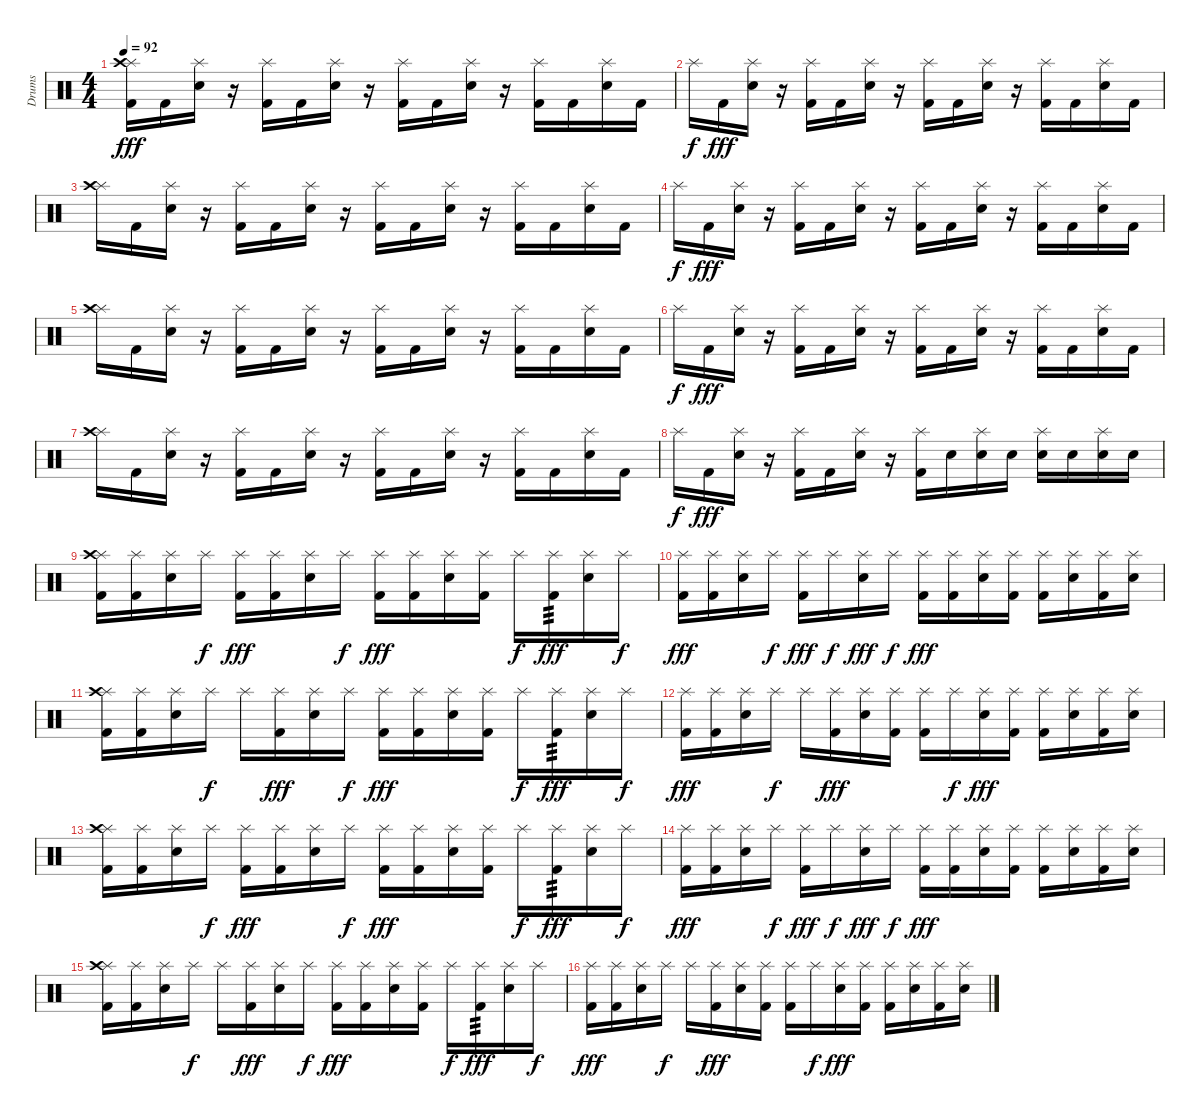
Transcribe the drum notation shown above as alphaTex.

\track ("Drums" "Drums") {instrument percussion}
\staff {score}
\articulation defaults
\ts (4 4)
\tempo 92
\clef neutral
\ks c
("Kick (hit) 2" "Splash (hit)" "Crash high (hit)").16{dy fff} "Kick (hit) 2".16 ("Electric Snare (hit)" "Splash (hit)").16 r.16 ("Kick (hit) 2" "Splash (hit)").16 "Kick (hit) 2".16 ("Electric Snare (hit)" "Splash (hit)").16 r.16 ("Kick (hit) 2" "Splash (hit)").16 "Kick (hit) 2".16 ("Electric Snare (hit)" "Splash (hit)").16 r.16 ("Kick (hit) 2" "Splash (hit)").16 "Kick (hit) 2".16 ("Electric Snare (hit)" "Splash (hit)").16 "Kick (hit) 2".16 |
"Splash (hit)".16{dy f} "Kick (hit) 2".16{dy fff} ("Electric Snare (hit)" "Splash (hit)").16 r.16 ("Kick (hit) 2" "Splash (hit)").16 "Kick (hit) 2".16 ("Electric Snare (hit)" "Splash (hit)").16 r.16 ("Kick (hit) 2" "Splash (hit)").16 "Kick (hit) 2".16 ("Electric Snare (hit)" "Splash (hit)").16 r.16 ("Kick (hit) 2" "Splash (hit)").16 "Kick (hit) 2".16 ("Electric Snare (hit)" "Splash (hit)").16 "Kick (hit) 2".16 |
("Splash (hit)" "Crash high (hit)").16 "Kick (hit) 2".16 ("Electric Snare (hit)" "Splash (hit)").16 r.16 ("Kick (hit) 2" "Splash (hit)").16 "Kick (hit) 2".16 ("Electric Snare (hit)" "Splash (hit)").16 r.16 ("Kick (hit) 2" "Splash (hit)").16 "Kick (hit) 2".16 ("Electric Snare (hit)" "Splash (hit)").16 r.16 ("Kick (hit) 2" "Splash (hit)").16 "Kick (hit) 2".16 ("Electric Snare (hit)" "Splash (hit)").16 "Kick (hit) 2".16 |
"Splash (hit)".16{dy f} "Kick (hit) 2".16{dy fff} ("Electric Snare (hit)" "Splash (hit)").16 r.16 ("Kick (hit) 2" "Splash (hit)").16 "Kick (hit) 2".16 ("Electric Snare (hit)" "Splash (hit)").16 r.16 ("Kick (hit) 2" "Splash (hit)").16 "Kick (hit) 2".16 ("Electric Snare (hit)" "Splash (hit)").16 r.16 ("Kick (hit) 2" "Splash (hit)").16 "Kick (hit) 2".16 ("Electric Snare (hit)" "Splash (hit)").16 "Kick (hit) 2".16 |
("Splash (hit)" "Crash high (hit)").16 "Kick (hit) 2".16 ("Electric Snare (hit)" "Splash (hit)").16 r.16 ("Kick (hit) 2" "Splash (hit)").16 "Kick (hit) 2".16 ("Electric Snare (hit)" "Splash (hit)").16 r.16 ("Kick (hit) 2" "Splash (hit)").16 "Kick (hit) 2".16 ("Electric Snare (hit)" "Splash (hit)").16 r.16 ("Kick (hit) 2" "Splash (hit)").16 "Kick (hit) 2".16 ("Electric Snare (hit)" "Splash (hit)").16 "Kick (hit) 2".16 |
"Splash (hit)".16{dy f} "Kick (hit) 2".16{dy fff} ("Electric Snare (hit)" "Splash (hit)").16 r.16 ("Kick (hit) 2" "Splash (hit)").16 "Kick (hit) 2".16 ("Electric Snare (hit)" "Splash (hit)").16 r.16 ("Kick (hit) 2" "Splash (hit)").16 "Kick (hit) 2".16 ("Electric Snare (hit)" "Splash (hit)").16 r.16 ("Kick (hit) 2" "Splash (hit)").16 "Kick (hit) 2".16 ("Electric Snare (hit)" "Splash (hit)").16 "Kick (hit) 2".16 |
("Splash (hit)" "Crash high (hit)").16 "Kick (hit) 2".16 ("Electric Snare (hit)" "Splash (hit)").16 r.16 ("Kick (hit) 2" "Splash (hit)").16 "Kick (hit) 2".16 ("Electric Snare (hit)" "Splash (hit)").16 r.16 ("Kick (hit) 2" "Splash (hit)").16 "Kick (hit) 2".16 ("Electric Snare (hit)" "Splash (hit)").16 r.16 ("Kick (hit) 2" "Splash (hit)").16 "Kick (hit) 2".16 ("Electric Snare (hit)" "Splash (hit)").16 "Kick (hit) 2".16 |
"Splash (hit)".16{dy f} "Kick (hit) 2".16{dy fff} ("Electric Snare (hit)" "Splash (hit)").16 r.16 ("Kick (hit) 2" "Splash (hit)").16 "Kick (hit) 2".16 ("Electric Snare (hit)" "Splash (hit)").16 r.16 ("Kick (hit) 2" "Splash (hit)").16 "Electric Snare (hit)".16 ("Electric Snare (hit)" "Splash (hit)").16 "Electric Snare (hit)".16 ("Electric Snare (hit)" "Splash (hit)").16 "Electric Snare (hit)".16 ("Electric Snare (hit)" "Splash (hit)").16 "Electric Snare (hit)".16 |
("Kick (hit) 2" "Splash (hit)" "Crash high (hit)").16 ("Kick (hit) 2" "Splash (hit)").16 ("Electric Snare (hit)" "Splash (hit)").16 "Splash (hit)".16{dy f} ("Kick (hit) 2" "Splash (hit)").16{dy fff} ("Kick (hit) 2" "Splash (hit)").16 ("Electric Snare (hit)" "Splash (hit)").16 "Splash (hit)".16{dy f} ("Kick (hit) 2" "Splash (hit)").16{dy fff} ("Kick (hit) 2" "Splash (hit)").16 ("Electric Snare (hit)" "Splash (hit)").16 ("Kick (hit) 2" "Splash (hit)").16 "Splash (hit)".16{dy f} ("Kick (hit) 2" "Splash (hit)").16{tp 3 dy fff} ("Electric Snare (hit)" "Splash (hit)").16 "Splash (hit)".16{dy f} |
("Kick (hit) 2" "Splash (hit)").16{dy fff} ("Kick (hit) 2" "Splash (hit)").16 ("Electric Snare (hit)" "Splash (hit)").16 "Splash (hit)".16{dy f} ("Kick (hit) 2" "Splash (hit)").16{dy fff} "Splash (hit)".16{dy f} ("Electric Snare (hit)" "Splash (hit)").16{dy fff} "Splash (hit)".16{dy f} ("Kick (hit) 2" "Splash (hit)").16{dy fff} ("Kick (hit) 2" "Splash (hit)").16 ("Electric Snare (hit)" "Splash (hit)").16 ("Kick (hit) 2" "Splash (hit)").16 ("Kick (hit) 2" "Splash (hit)").16 ("Electric Snare (hit)" "Splash (hit)").16 ("Kick (hit) 2" "Splash (hit)").16 ("Electric Snare (hit)" "Splash (hit)").16 |
("Kick (hit) 2" "Splash (hit)" "Crash high (hit)").16 ("Kick (hit) 2" "Splash (hit)").16 ("Electric Snare (hit)" "Splash (hit)").16 "Splash (hit)".16{dy f} "Splash (hit)".16 ("Kick (hit) 2" "Splash (hit)").16{dy fff} ("Electric Snare (hit)" "Splash (hit)").16 "Splash (hit)".16{dy f} ("Kick (hit) 2" "Splash (hit)").16{dy fff} ("Kick (hit) 2" "Splash (hit)").16 ("Electric Snare (hit)" "Splash (hit)").16 ("Kick (hit) 2" "Splash (hit)").16 "Splash (hit)".16{dy f} ("Kick (hit) 2" "Splash (hit)").16{tp 3 dy fff} ("Electric Snare (hit)" "Splash (hit)").16 "Splash (hit)".16{dy f} |
("Kick (hit) 2" "Splash (hit)").16{dy fff} ("Kick (hit) 2" "Splash (hit)").16 ("Electric Snare (hit)" "Splash (hit)").16 "Splash (hit)".16{dy f} "Splash (hit)".16 ("Kick (hit) 2" "Splash (hit)").16{dy fff} ("Electric Snare (hit)" "Splash (hit)").16 ("Kick (hit) 2" "Splash (hit)").16 ("Kick (hit) 2" "Splash (hit)").16 "Splash (hit)".16{dy f} ("Electric Snare (hit)" "Splash (hit)").16{dy fff} ("Kick (hit) 2" "Splash (hit)").16 ("Kick (hit) 2" "Splash (hit)").16 ("Electric Snare (hit)" "Splash (hit)").16 ("Kick (hit) 2" "Splash (hit)").16 ("Electric Snare (hit)" "Splash (hit)").16 |
("Kick (hit) 2" "Splash (hit)" "Crash high (hit)").16 ("Kick (hit) 2" "Splash (hit)").16 ("Electric Snare (hit)" "Splash (hit)").16 "Splash (hit)".16{dy f} ("Kick (hit) 2" "Splash (hit)").16{dy fff} ("Kick (hit) 2" "Splash (hit)").16 ("Electric Snare (hit)" "Splash (hit)").16 "Splash (hit)".16{dy f} ("Kick (hit) 2" "Splash (hit)").16{dy fff} ("Kick (hit) 2" "Splash (hit)").16 ("Electric Snare (hit)" "Splash (hit)").16 ("Kick (hit) 2" "Splash (hit)").16 "Splash (hit)".16{dy f} ("Kick (hit) 2" "Splash (hit)").16{tp 3 dy fff} ("Electric Snare (hit)" "Splash (hit)").16 "Splash (hit)".16{dy f} |
("Kick (hit) 2" "Splash (hit)").16{dy fff} ("Kick (hit) 2" "Splash (hit)").16 ("Electric Snare (hit)" "Splash (hit)").16 "Splash (hit)".16{dy f} ("Kick (hit) 2" "Splash (hit)").16{dy fff} "Splash (hit)".16{dy f} ("Electric Snare (hit)" "Splash (hit)").16{dy fff} "Splash (hit)".16{dy f} ("Kick (hit) 2" "Splash (hit)").16{dy fff} ("Kick (hit) 2" "Splash (hit)").16 ("Electric Snare (hit)" "Splash (hit)").16 ("Kick (hit) 2" "Splash (hit)").16 ("Kick (hit) 2" "Splash (hit)").16 ("Electric Snare (hit)" "Splash (hit)").16 ("Kick (hit) 2" "Splash (hit)").16 ("Electric Snare (hit)" "Splash (hit)").16 |
("Kick (hit) 2" "Splash (hit)" "Crash high (hit)").16 ("Kick (hit) 2" "Splash (hit)").16 ("Electric Snare (hit)" "Splash (hit)").16 "Splash (hit)".16{dy f} "Splash (hit)".16 ("Kick (hit) 2" "Splash (hit)").16{dy fff} ("Electric Snare (hit)" "Splash (hit)").16 "Splash (hit)".16{dy f} ("Kick (hit) 2" "Splash (hit)").16{dy fff} ("Kick (hit) 2" "Splash (hit)").16 ("Electric Snare (hit)" "Splash (hit)").16 ("Kick (hit) 2" "Splash (hit)").16 "Splash (hit)".16{dy f} ("Kick (hit) 2" "Splash (hit)").16{tp 3 dy fff} ("Electric Snare (hit)" "Splash (hit)").16 "Splash (hit)".16{dy f} |
("Kick (hit) 2" "Splash (hit)").16{dy fff} ("Kick (hit) 2" "Splash (hit)").16 ("Electric Snare (hit)" "Splash (hit)").16 "Splash (hit)".16{dy f} "Splash (hit)".16 ("Kick (hit) 2" "Splash (hit)").16{dy fff} ("Electric Snare (hit)" "Splash (hit)").16 ("Kick (hit) 2" "Splash (hit)").16 ("Kick (hit) 2" "Splash (hit)").16 "Splash (hit)".16{dy f} ("Electric Snare (hit)" "Splash (hit)").16{dy fff} ("Kick (hit) 2" "Splash (hit)").16 ("Kick (hit) 2" "Splash (hit)").16 ("Electric Snare (hit)" "Splash (hit)").16 ("Kick (hit) 2" "Splash (hit)").16 ("Electric Snare (hit)" "Splash (hit)").16
